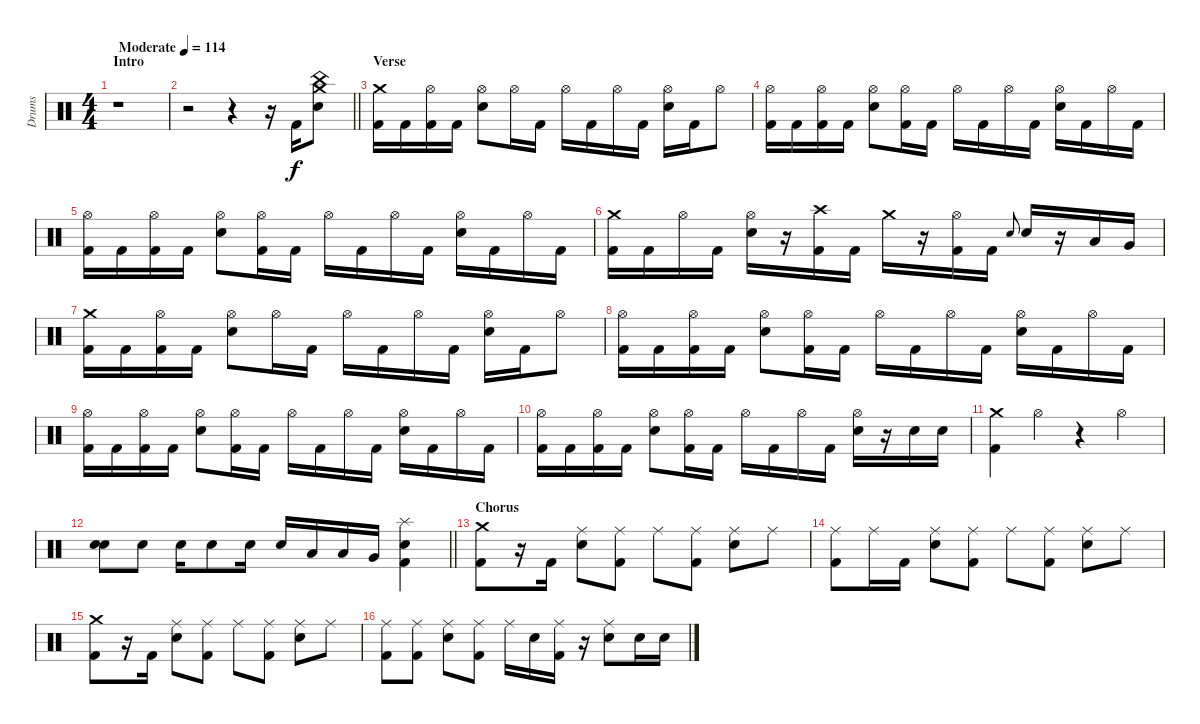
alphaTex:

\track ("Drums" "Drums") {instrument percussion}
\staff {score}
\articulation defaults
\ts (4 4)
\section ("" "Intro")
\tempo (114 "Moderate")
\clef neutral
\ks c
r.1{dy f} |
\barLineRight lightlight
r.2 r.4 r.16 "Kick (hit) 2".16 ("Crash medium (hit)" "China (hit)" "Electric Snare (hit)").8 |
\section ("" "Verse")
("Crash medium (hit)" "Kick (hit) 2").16 "Kick (hit) 2".16 ("Hi-Hat (open)" "Kick (hit) 2").16 "Kick (hit) 2".16 ("Hi-Hat (open)" "Electric Snare (hit)").8 "Hi-Hat (open)".16 "Kick (hit) 2".16 "Hi-Hat (open)".16 "Kick (hit) 2".16 "Hi-Hat (open)".16 "Kick (hit) 2".16 ("Hi-Hat (open)" "Electric Snare (hit)").16 "Kick (hit) 2".16 "Hi-Hat (open)".8 |
("Hi-Hat (open)" "Kick (hit) 2").16 "Kick (hit) 2".16 ("Hi-Hat (open)" "Kick (hit) 2").16 "Kick (hit) 2".16 ("Hi-Hat (open)" "Electric Snare (hit)").8 ("Hi-Hat (open)" "Kick (hit) 2").16 "Kick (hit) 2".16 "Hi-Hat (open)".16 "Kick (hit) 2".16 "Hi-Hat (open)".16 "Kick (hit) 2".16 ("Hi-Hat (open)" "Electric Snare (hit)").16 "Kick (hit) 2".16 "Hi-Hat (open)".16 "Kick (hit) 2".16 |
("Hi-Hat (open)" "Kick (hit) 2").16 "Kick (hit) 2".16 ("Hi-Hat (open)" "Kick (hit) 2").16 "Kick (hit) 2".16 ("Hi-Hat (open)" "Electric Snare (hit)").8 ("Hi-Hat (open)" "Kick (hit) 2").16 "Kick (hit) 2".16 "Hi-Hat (open)".16 "Kick (hit) 2".16 "Hi-Hat (open)".16 "Kick (hit) 2".16 ("Hi-Hat (open)" "Electric Snare (hit)").16 "Kick (hit) 2".16 "Hi-Hat (open)".16 "Kick (hit) 2".16 |
("Crash medium (hit)" "Kick (hit) 2").16 "Kick (hit) 2".16 "Hi-Hat (open)".16 "Kick (hit) 2".16 ("Hi-Hat (open)" "Electric Snare (hit)").16 r.16 ("Crash high (hit)" "Kick (hit) 2").16 "Kick (hit) 2".16 "Crash medium (hit)".16 r.16 ("Hi-Hat (open)" "Kick (hit) 2").16 "Kick (hit) 2".16 "Electric Snare (hit)".8{gr onbeat} "Electric Snare (hit)".16 r.16 "Low Tom (hit)".16 "Very Low Tom (hit)".16 |
("Crash medium (hit)" "Kick (hit) 2").16 "Kick (hit) 2".16 ("Hi-Hat (open)" "Kick (hit) 2").16 "Kick (hit) 2".16 ("Hi-Hat (open)" "Electric Snare (hit)").8 "Hi-Hat (open)".16 "Kick (hit) 2".16 "Hi-Hat (open)".16 "Kick (hit) 2".16 "Hi-Hat (open)".16 "Kick (hit) 2".16 ("Hi-Hat (open)" "Electric Snare (hit)").16 "Kick (hit) 2".16 "Hi-Hat (open)".8 |
("Hi-Hat (open)" "Kick (hit) 2").16 "Kick (hit) 2".16 ("Hi-Hat (open)" "Kick (hit) 2").16 "Kick (hit) 2".16 ("Hi-Hat (open)" "Electric Snare (hit)").8 ("Hi-Hat (open)" "Kick (hit) 2").16 "Kick (hit) 2".16 "Hi-Hat (open)".16 "Kick (hit) 2".16 "Hi-Hat (open)".16 "Kick (hit) 2".16 ("Hi-Hat (open)" "Electric Snare (hit)").16 "Kick (hit) 2".16 "Hi-Hat (open)".16 "Kick (hit) 2".16 |
("Hi-Hat (open)" "Kick (hit) 2").16 "Kick (hit) 2".16 ("Hi-Hat (open)" "Kick (hit) 2").16 "Kick (hit) 2".16 ("Hi-Hat (open)" "Electric Snare (hit)").8 ("Hi-Hat (open)" "Kick (hit) 2").16 "Kick (hit) 2".16 "Hi-Hat (open)".16 "Kick (hit) 2".16 "Hi-Hat (open)".16 "Kick (hit) 2".16 ("Hi-Hat (open)" "Electric Snare (hit)").16 "Kick (hit) 2".16 "Hi-Hat (open)".16 "Kick (hit) 2".16 |
("Hi-Hat (open)" "Kick (hit) 2").16 "Kick (hit) 2".16 ("Hi-Hat (open)" "Kick (hit) 2").16 "Kick (hit) 2".16 ("Hi-Hat (open)" "Electric Snare (hit)").8 ("Hi-Hat (open)" "Kick (hit) 2").16 "Kick (hit) 2".16 "Hi-Hat (open)".16 "Kick (hit) 2".16 "Hi-Hat (open)".16 "Kick (hit) 2".16 ("Hi-Hat (open)" "Electric Snare (hit)").16 r.16 "Electric Snare (hit)".16 "Electric Snare (hit)".16 |
("Crash medium (hit)" "Kick (hit) 2").4 "Hi-Hat (open)".4 r.4 "Hi-Hat (open)".4 |
\barLineRight lightlight
("Electric Snare (hit)" "Electric Snare (hit)").8 "Electric Snare (hit)".8 "Electric Snare (hit)".16 "Electric Snare (hit)".8 "Electric Snare (hit)".16 "Electric Snare (hit)".16 "Low Tom (hit)".16 "Low Tom (hit)".16 "Very Low Tom (hit)".16 ("Splash (hit)" "Electric Snare (hit)" "Kick (hit) 2").4 |
\section ("" "Chorus")
("Crash medium (hit)" "Kick (hit) 2").8 r.16 "Kick (hit) 2".16 ("Ride (middle)" "Electric Snare (hit)").8 ("Ride (middle)" "Kick (hit) 2").8 "Ride (middle)".8 ("Ride (middle)" "Kick (hit) 2").8 ("Ride (middle)" "Electric Snare (hit)").8 "Ride (middle)".8 |
("Ride (middle)" "Kick (hit) 2").8 "Ride (middle)".16 "Kick (hit) 2".16 ("Ride (middle)" "Electric Snare (hit)").8 ("Ride (middle)" "Kick (hit) 2").8 "Ride (middle)".8 ("Ride (middle)" "Kick (hit) 2").8 ("Ride (middle)" "Electric Snare (hit)").8 "Ride (middle)".8 |
("Crash medium (hit)" "Kick (hit) 2").8 r.16 "Kick (hit) 2".16 ("Ride (middle)" "Electric Snare (hit)").8 ("Ride (middle)" "Kick (hit) 2").8 "Ride (middle)".8 ("Ride (middle)" "Kick (hit) 2").8 ("Ride (middle)" "Electric Snare (hit)").8 "Ride (middle)".8 |
("Ride (middle)" "Kick (hit) 2").8 ("Ride (middle)" "Kick (hit) 2").8 ("Ride (middle)" "Electric Snare (hit)").8 ("Ride (middle)" "Kick (hit) 2").8 "Ride (middle)".16 "Electric Snare (hit)".16 ("Ride (middle)" "Kick (hit) 2").16 r.16 ("Ride (middle)" "Electric Snare (hit)").8 "Electric Snare (hit)".16 "Electric Snare (hit)".16
